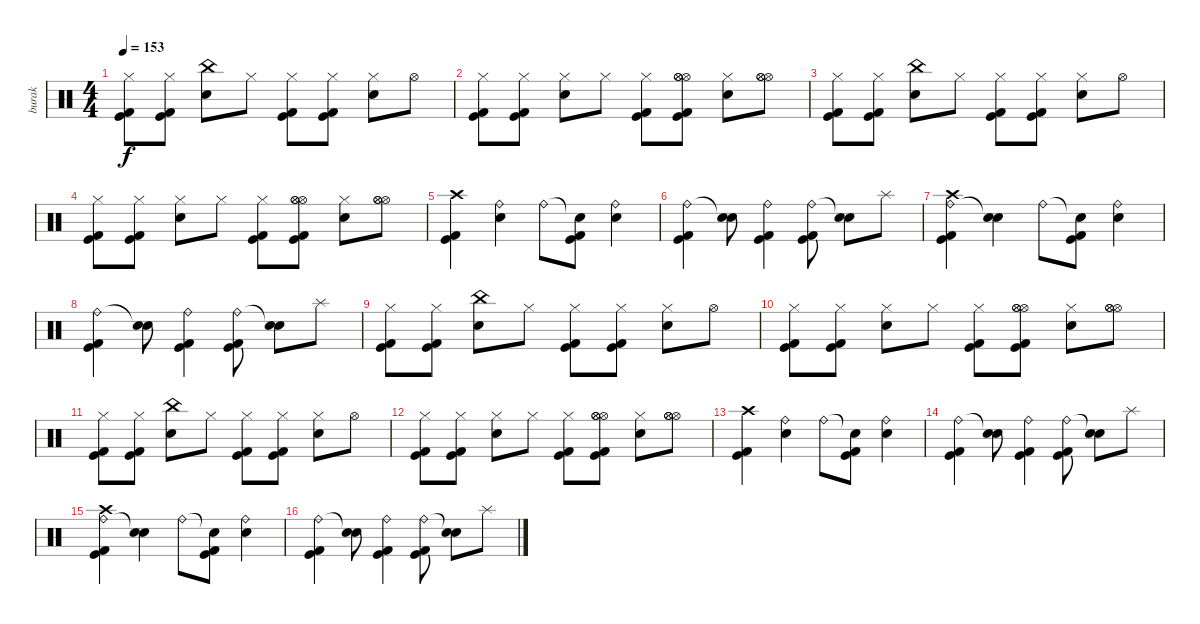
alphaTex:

\track ("burak" "burak") {instrument percussion}
\staff {score}
\articulation defaults
\ts (4 4)
\tempo 153
\clef neutral
\ks c
("Hi-Hat (closed)" "Kick (hit)" "Kick (hit) 2").8{dy f} ("Hi-Hat (closed)" "Kick (hit)" "Kick (hit) 2").8 ("Electric Snare (hit)" "China (hit)").8 "Hi-Hat (closed)".8 ("Hi-Hat (closed)" "Kick (hit) 2" "Kick (hit)").8 ("Hi-Hat (closed)" "Kick (hit)" "Kick (hit) 2").8 ("Hi-Hat (closed)" "Electric Snare (hit)").8 "Hi-Hat (open)".8 |
("Hi-Hat (closed)" "Kick (hit)" "Kick (hit) 2").8 ("Hi-Hat (closed)" "Kick (hit)" "Kick (hit) 2").8 ("Hi-Hat (closed)" "Electric Snare (hit)").8 "Hi-Hat (closed)".8 ("Hi-Hat (closed)" "Kick (hit)" "Kick (hit) 2").8 ("Kick (hit)" "Kick (hit) 2" "Hi-Hat (open)" "Hi-Hat (open)" "Hi-Hat (open)").8 ("Hi-Hat (closed)" "Electric Snare (hit)").8 ("Hi-Hat (open)" "Hi-Hat (open)" "Hi-Hat (open)").8 |
("Hi-Hat (closed)" "Kick (hit)" "Kick (hit) 2").8 ("Hi-Hat (closed)" "Kick (hit)" "Kick (hit) 2").8 ("Electric Snare (hit)" "China (hit)").8 "Hi-Hat (closed)".8 ("Hi-Hat (closed)" "Kick (hit) 2" "Kick (hit)").8 ("Hi-Hat (closed)" "Kick (hit)" "Kick (hit) 2").8 ("Hi-Hat (closed)" "Electric Snare (hit)").8 "Hi-Hat (open)".8 |
("Hi-Hat (closed)" "Kick (hit)" "Kick (hit) 2").8 ("Hi-Hat (closed)" "Kick (hit)" "Kick (hit) 2").8 ("Hi-Hat (closed)" "Electric Snare (hit)").8 "Hi-Hat (closed)".8 ("Hi-Hat (closed)" "Kick (hit)" "Kick (hit) 2").8 ("Kick (hit)" "Kick (hit) 2" "Hi-Hat (open)" "Hi-Hat (open)" "Hi-Hat (open)").8 ("Hi-Hat (closed)" "Electric Snare (hit)").8 ("Hi-Hat (open)" "Hi-Hat (open)" "Hi-Hat (open)").8 |
("Crash high (hit)" "Kick (hit)" "Kick (hit) 2").4 ("Ride (bell)" "Electric Snare (hit)").4 "Ride (bell)".8 ("Snare (hit)"{t} "Kick (hit)" "Kick (hit) 2").8 ("Ride (bell)" "Electric Snare (hit)").4 |
("Ride (bell)" "Kick (hit)" "Kick (hit) 2").4 ("Snare (hit)"{t} "Electric Snare (hit)").8 ("Ride (bell)" "Kick (hit)" "Kick (hit) 2").4 ("Ride (bell)" "Kick (hit)" "Kick (hit) 2").8 ("Snare (hit)"{t} "Electric Snare (hit)").8 "Splash (hit)".8 |
("Ride (bell)" "Crash high (hit)" "Kick (hit)" "Kick (hit) 2").4 ("Snare (hit)"{t} "Electric Snare (hit)").4 "Ride (bell)".8 ("Snare (hit)"{t} "Kick (hit)" "Kick (hit) 2").8 ("Ride (bell)" "Electric Snare (hit)").4 |
("Ride (bell)" "Kick (hit)" "Kick (hit) 2").4 ("Snare (hit)"{t} "Electric Snare (hit)").8 ("Ride (bell)" "Kick (hit)" "Kick (hit) 2").4 ("Ride (bell)" "Kick (hit)" "Kick (hit) 2").8 ("Snare (hit)"{t} "Electric Snare (hit)").8 "Splash (hit)".8 |
("Hi-Hat (closed)" "Kick (hit)" "Kick (hit) 2").8 ("Hi-Hat (closed)" "Kick (hit)" "Kick (hit) 2").8 ("Electric Snare (hit)" "China (hit)").8 "Hi-Hat (closed)".8 ("Hi-Hat (closed)" "Kick (hit) 2" "Kick (hit)").8 ("Hi-Hat (closed)" "Kick (hit)" "Kick (hit) 2").8 ("Hi-Hat (closed)" "Electric Snare (hit)").8 "Hi-Hat (open)".8 |
("Hi-Hat (closed)" "Kick (hit)" "Kick (hit) 2").8 ("Hi-Hat (closed)" "Kick (hit)" "Kick (hit) 2").8 ("Hi-Hat (closed)" "Electric Snare (hit)").8 "Hi-Hat (closed)".8 ("Hi-Hat (closed)" "Kick (hit)" "Kick (hit) 2").8 ("Kick (hit)" "Kick (hit) 2" "Hi-Hat (open)" "Hi-Hat (open)" "Hi-Hat (open)").8 ("Hi-Hat (closed)" "Electric Snare (hit)").8 ("Hi-Hat (open)" "Hi-Hat (open)" "Hi-Hat (open)").8 |
("Hi-Hat (closed)" "Kick (hit)" "Kick (hit) 2").8 ("Hi-Hat (closed)" "Kick (hit)" "Kick (hit) 2").8 ("Electric Snare (hit)" "China (hit)").8 "Hi-Hat (closed)".8 ("Hi-Hat (closed)" "Kick (hit) 2" "Kick (hit)").8 ("Hi-Hat (closed)" "Kick (hit)" "Kick (hit) 2").8 ("Hi-Hat (closed)" "Electric Snare (hit)").8 "Hi-Hat (open)".8 |
("Hi-Hat (closed)" "Kick (hit)" "Kick (hit) 2").8 ("Hi-Hat (closed)" "Kick (hit)" "Kick (hit) 2").8 ("Hi-Hat (closed)" "Electric Snare (hit)").8 "Hi-Hat (closed)".8 ("Hi-Hat (closed)" "Kick (hit)" "Kick (hit) 2").8 ("Kick (hit)" "Kick (hit) 2" "Hi-Hat (open)" "Hi-Hat (open)" "Hi-Hat (open)").8 ("Hi-Hat (closed)" "Electric Snare (hit)").8 ("Hi-Hat (open)" "Hi-Hat (open)" "Hi-Hat (open)").8 |
("Crash high (hit)" "Kick (hit)" "Kick (hit) 2").4 ("Ride (bell)" "Electric Snare (hit)").4 "Ride (bell)".8 ("Snare (hit)"{t} "Kick (hit)" "Kick (hit) 2").8 ("Ride (bell)" "Electric Snare (hit)").4 |
("Ride (bell)" "Kick (hit)" "Kick (hit) 2").4 ("Snare (hit)"{t} "Electric Snare (hit)").8 ("Ride (bell)" "Kick (hit)" "Kick (hit) 2").4 ("Ride (bell)" "Kick (hit)" "Kick (hit) 2").8 ("Snare (hit)"{t} "Electric Snare (hit)").8 "Splash (hit)".8 |
("Ride (bell)" "Crash high (hit)" "Kick (hit)" "Kick (hit) 2").4 ("Snare (hit)"{t} "Electric Snare (hit)").4 "Ride (bell)".8 ("Snare (hit)"{t} "Kick (hit)" "Kick (hit) 2").8 ("Ride (bell)" "Electric Snare (hit)").4 |
("Ride (bell)" "Kick (hit)" "Kick (hit) 2").4 ("Snare (hit)"{t} "Electric Snare (hit)").8 ("Ride (bell)" "Kick (hit)" "Kick (hit) 2").4 ("Ride (bell)" "Kick (hit)" "Kick (hit) 2").8 ("Snare (hit)"{t} "Electric Snare (hit)").8 "Splash (hit)".8
